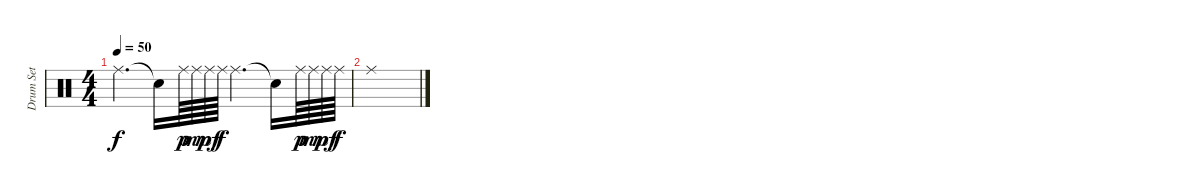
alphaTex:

\track ("Drum Set" "Drum Set") {instrument percussion}
\staff {score}
\articulation defaults
\ts (4 4)
\tempo 50
\clef neutral
\ks c "Ride (middle)".4{d dy f} "Snare (hit)"{t}.16 "Ride (middle)".64{dy p} "Ride (middle)".64{dy mp} "Ride (middle)".64{dy mf} "Ride (middle)".64{dy f} "Ride (middle)".4{d} "Snare (hit)"{t}.16 "Ride (middle)".64{dy p} "Ride (middle)".64{dy mp} "Ride (middle)".64{dy mf} "Ride (middle)".64{dy f}
|
"Ride (middle)".1
